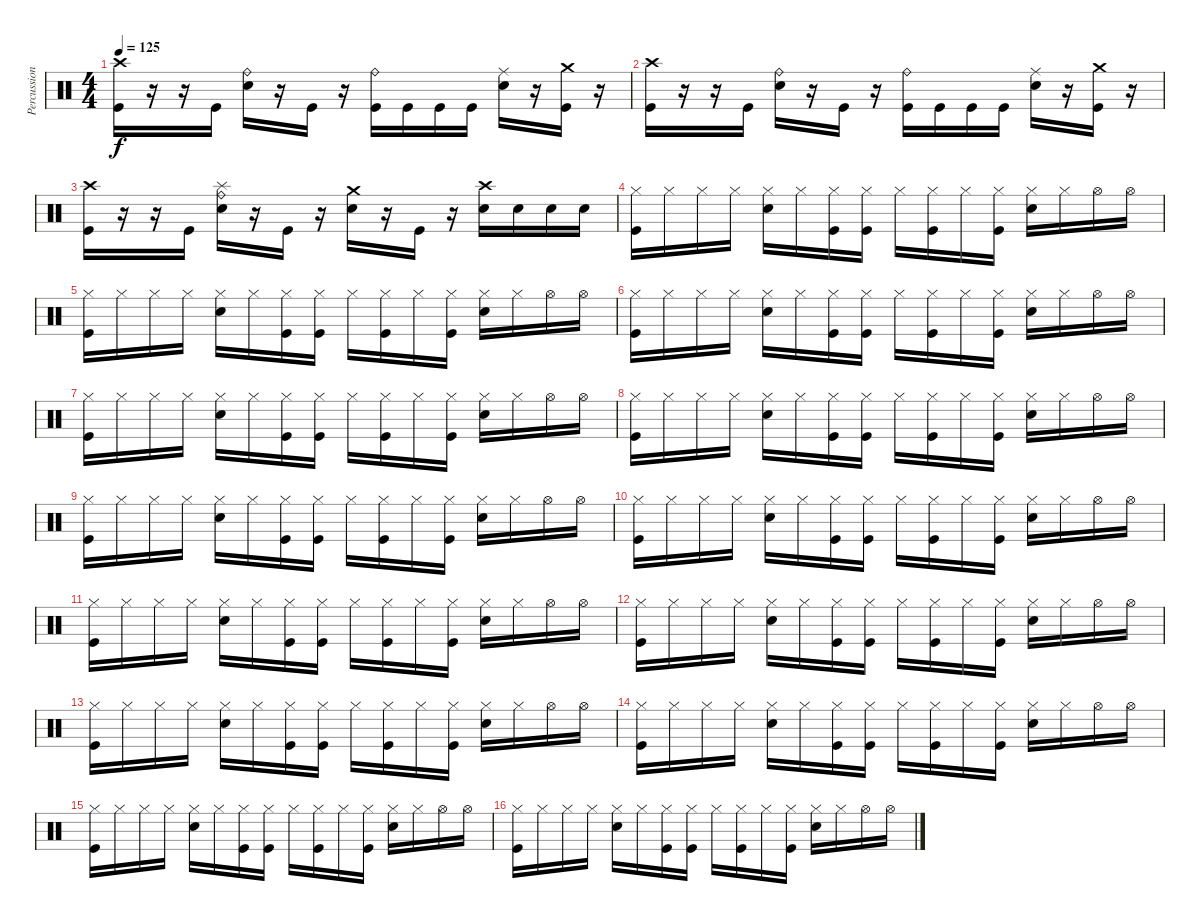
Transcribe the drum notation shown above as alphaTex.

\track ("Percussion" "Percussion") {instrument percussion}
\staff {score}
\articulation defaults
\ts (4 4)
\tempo 125
\clef neutral
\ks c
("Crash high (hit)" "Kick (hit)").16{dy f} r.16 r.16 "Kick (hit)".16 ("Ride (bell)" "Electric Snare (hit)").16 r.16 "Kick (hit)".16 r.16 ("Ride (bell)" "Kick (hit)").16 "Kick (hit)".16 "Kick (hit)".16 "Kick (hit)".16 ("Ride (middle)" "Electric Snare (hit)").16 r.16 ("Crash medium (hit)" "Kick (hit)").16 r.16 |
("Crash high (hit)" "Kick (hit)").16 r.16 r.16 "Kick (hit)".16 ("Ride (bell)" "Electric Snare (hit)").16 r.16 "Kick (hit)".16 r.16 ("Ride (bell)" "Kick (hit)").16 "Kick (hit)".16 "Kick (hit)".16 "Kick (hit)".16 ("Ride (middle)" "Electric Snare (hit)").16 r.16 ("Crash medium (hit)" "Kick (hit)").16 r.16 |
("Crash high (hit)" "Kick (hit)").16 r.16 r.16 "Kick (hit)".16 ("Ride (bell)" "Splash (hit)" "Electric Snare (hit)").16 r.16 "Kick (hit)".16 r.16 ("Crash medium (hit)" "Electric Snare (hit)").16 r.16 "Kick (hit)".16 r.16 ("Crash high (hit)" "Electric Snare (hit)").16 "Electric Snare (hit)".16 "Electric Snare (hit)".16 "Electric Snare (hit)".16 |
("Hi-Hat (closed)" "Kick (hit)").16 "Hi-Hat (closed)".16 "Hi-Hat (closed)".16 "Hi-Hat (closed)".16 ("Hi-Hat (closed)" "Electric Snare (hit)").16 "Hi-Hat (closed)".16 ("Hi-Hat (closed)" "Kick (hit)").16 ("Hi-Hat (closed)" "Kick (hit)").16 "Hi-Hat (closed)".16 ("Hi-Hat (closed)" "Kick (hit)").16 "Hi-Hat (closed)".16 ("Hi-Hat (closed)" "Kick (hit)").16 ("Hi-Hat (closed)" "Electric Snare (hit)").16 "Hi-Hat (closed)".16 "Hi-Hat (open)".16 "Hi-Hat (open)".16 |
("Hi-Hat (closed)" "Kick (hit)").16 "Hi-Hat (closed)".16 "Hi-Hat (closed)".16 "Hi-Hat (closed)".16 ("Hi-Hat (closed)" "Electric Snare (hit)").16 "Hi-Hat (closed)".16 ("Hi-Hat (closed)" "Kick (hit)").16 ("Hi-Hat (closed)" "Kick (hit)").16 "Hi-Hat (closed)".16 ("Hi-Hat (closed)" "Kick (hit)").16 "Hi-Hat (closed)".16 ("Hi-Hat (closed)" "Kick (hit)").16 ("Hi-Hat (closed)" "Electric Snare (hit)").16 "Hi-Hat (closed)".16 "Hi-Hat (open)".16 "Hi-Hat (open)".16 |
("Hi-Hat (closed)" "Kick (hit)").16 "Hi-Hat (closed)".16 "Hi-Hat (closed)".16 "Hi-Hat (closed)".16 ("Hi-Hat (closed)" "Electric Snare (hit)").16 "Hi-Hat (closed)".16 ("Hi-Hat (closed)" "Kick (hit)").16 ("Hi-Hat (closed)" "Kick (hit)").16 "Hi-Hat (closed)".16 ("Hi-Hat (closed)" "Kick (hit)").16 "Hi-Hat (closed)".16 ("Hi-Hat (closed)" "Kick (hit)").16 ("Hi-Hat (closed)" "Electric Snare (hit)").16 "Hi-Hat (closed)".16 "Hi-Hat (open)".16 "Hi-Hat (open)".16 |
("Hi-Hat (closed)" "Kick (hit)").16 "Hi-Hat (closed)".16 "Hi-Hat (closed)".16 "Hi-Hat (closed)".16 ("Hi-Hat (closed)" "Electric Snare (hit)").16 "Hi-Hat (closed)".16 ("Hi-Hat (closed)" "Kick (hit)").16 ("Hi-Hat (closed)" "Kick (hit)").16 "Hi-Hat (closed)".16 ("Hi-Hat (closed)" "Kick (hit)").16 "Hi-Hat (closed)".16 ("Hi-Hat (closed)" "Kick (hit)").16 ("Hi-Hat (closed)" "Electric Snare (hit)").16 "Hi-Hat (closed)".16 "Hi-Hat (open)".16 "Hi-Hat (open)".16 |
("Hi-Hat (closed)" "Kick (hit)").16 "Hi-Hat (closed)".16 "Hi-Hat (closed)".16 "Hi-Hat (closed)".16 ("Hi-Hat (closed)" "Electric Snare (hit)").16 "Hi-Hat (closed)".16 ("Hi-Hat (closed)" "Kick (hit)").16 ("Hi-Hat (closed)" "Kick (hit)").16 "Hi-Hat (closed)".16 ("Hi-Hat (closed)" "Kick (hit)").16 "Hi-Hat (closed)".16 ("Hi-Hat (closed)" "Kick (hit)").16 ("Hi-Hat (closed)" "Electric Snare (hit)").16 "Hi-Hat (closed)".16 "Hi-Hat (open)".16 "Hi-Hat (open)".16 |
("Hi-Hat (closed)" "Kick (hit)").16 "Hi-Hat (closed)".16 "Hi-Hat (closed)".16 "Hi-Hat (closed)".16 ("Hi-Hat (closed)" "Electric Snare (hit)").16 "Hi-Hat (closed)".16 ("Hi-Hat (closed)" "Kick (hit)").16 ("Hi-Hat (closed)" "Kick (hit)").16 "Hi-Hat (closed)".16 ("Hi-Hat (closed)" "Kick (hit)").16 "Hi-Hat (closed)".16 ("Hi-Hat (closed)" "Kick (hit)").16 ("Hi-Hat (closed)" "Electric Snare (hit)").16 "Hi-Hat (closed)".16 "Hi-Hat (open)".16 "Hi-Hat (open)".16 |
("Hi-Hat (closed)" "Kick (hit)").16 "Hi-Hat (closed)".16 "Hi-Hat (closed)".16 "Hi-Hat (closed)".16 ("Hi-Hat (closed)" "Electric Snare (hit)").16 "Hi-Hat (closed)".16 ("Hi-Hat (closed)" "Kick (hit)").16 ("Hi-Hat (closed)" "Kick (hit)").16 "Hi-Hat (closed)".16 ("Hi-Hat (closed)" "Kick (hit)").16 "Hi-Hat (closed)".16 ("Hi-Hat (closed)" "Kick (hit)").16 ("Hi-Hat (closed)" "Electric Snare (hit)").16 "Hi-Hat (closed)".16 "Hi-Hat (open)".16 "Hi-Hat (open)".16 |
("Hi-Hat (closed)" "Kick (hit)").16 "Hi-Hat (closed)".16 "Hi-Hat (closed)".16 "Hi-Hat (closed)".16 ("Hi-Hat (closed)" "Electric Snare (hit)").16 "Hi-Hat (closed)".16 ("Hi-Hat (closed)" "Kick (hit)").16 ("Hi-Hat (closed)" "Kick (hit)").16 "Hi-Hat (closed)".16 ("Hi-Hat (closed)" "Kick (hit)").16 "Hi-Hat (closed)".16 ("Hi-Hat (closed)" "Kick (hit)").16 ("Hi-Hat (closed)" "Electric Snare (hit)").16 "Hi-Hat (closed)".16 "Hi-Hat (open)".16 "Hi-Hat (open)".16 |
("Hi-Hat (closed)" "Kick (hit)").16 "Hi-Hat (closed)".16 "Hi-Hat (closed)".16 "Hi-Hat (closed)".16 ("Hi-Hat (closed)" "Electric Snare (hit)").16 "Hi-Hat (closed)".16 ("Hi-Hat (closed)" "Kick (hit)").16 ("Hi-Hat (closed)" "Kick (hit)").16 "Hi-Hat (closed)".16 ("Hi-Hat (closed)" "Kick (hit)").16 "Hi-Hat (closed)".16 ("Hi-Hat (closed)" "Kick (hit)").16 ("Hi-Hat (closed)" "Electric Snare (hit)").16 "Hi-Hat (closed)".16 "Hi-Hat (open)".16 "Hi-Hat (open)".16 |
("Hi-Hat (closed)" "Kick (hit)").16 "Hi-Hat (closed)".16 "Hi-Hat (closed)".16 "Hi-Hat (closed)".16 ("Hi-Hat (closed)" "Electric Snare (hit)").16 "Hi-Hat (closed)".16 ("Hi-Hat (closed)" "Kick (hit)").16 ("Hi-Hat (closed)" "Kick (hit)").16 "Hi-Hat (closed)".16 ("Hi-Hat (closed)" "Kick (hit)").16 "Hi-Hat (closed)".16 ("Hi-Hat (closed)" "Kick (hit)").16 ("Hi-Hat (closed)" "Electric Snare (hit)").16 "Hi-Hat (closed)".16 "Hi-Hat (open)".16 "Hi-Hat (open)".16 |
("Hi-Hat (closed)" "Kick (hit)").16 "Hi-Hat (closed)".16 "Hi-Hat (closed)".16 "Hi-Hat (closed)".16 ("Hi-Hat (closed)" "Electric Snare (hit)").16 "Hi-Hat (closed)".16 ("Hi-Hat (closed)" "Kick (hit)").16 ("Hi-Hat (closed)" "Kick (hit)").16 "Hi-Hat (closed)".16 ("Hi-Hat (closed)" "Kick (hit)").16 "Hi-Hat (closed)".16 ("Hi-Hat (closed)" "Kick (hit)").16 ("Hi-Hat (closed)" "Electric Snare (hit)").16 "Hi-Hat (closed)".16 "Hi-Hat (open)".16 "Hi-Hat (open)".16 |
("Hi-Hat (closed)" "Kick (hit)").16 "Hi-Hat (closed)".16 "Hi-Hat (closed)".16 "Hi-Hat (closed)".16 ("Hi-Hat (closed)" "Electric Snare (hit)").16 "Hi-Hat (closed)".16 ("Hi-Hat (closed)" "Kick (hit)").16 ("Hi-Hat (closed)" "Kick (hit)").16 "Hi-Hat (closed)".16 ("Hi-Hat (closed)" "Kick (hit)").16 "Hi-Hat (closed)".16 ("Hi-Hat (closed)" "Kick (hit)").16 ("Hi-Hat (closed)" "Electric Snare (hit)").16 "Hi-Hat (closed)".16 "Hi-Hat (open)".16 "Hi-Hat (open)".16 |
("Hi-Hat (closed)" "Kick (hit)").16 "Hi-Hat (closed)".16 "Hi-Hat (closed)".16 "Hi-Hat (closed)".16 ("Hi-Hat (closed)" "Electric Snare (hit)").16 "Hi-Hat (closed)".16 ("Hi-Hat (closed)" "Kick (hit)").16 ("Hi-Hat (closed)" "Kick (hit)").16 "Hi-Hat (closed)".16 ("Hi-Hat (closed)" "Kick (hit)").16 "Hi-Hat (closed)".16 ("Hi-Hat (closed)" "Kick (hit)").16 ("Hi-Hat (closed)" "Electric Snare (hit)").16 "Hi-Hat (closed)".16 "Hi-Hat (open)".16 "Hi-Hat (open)".16
